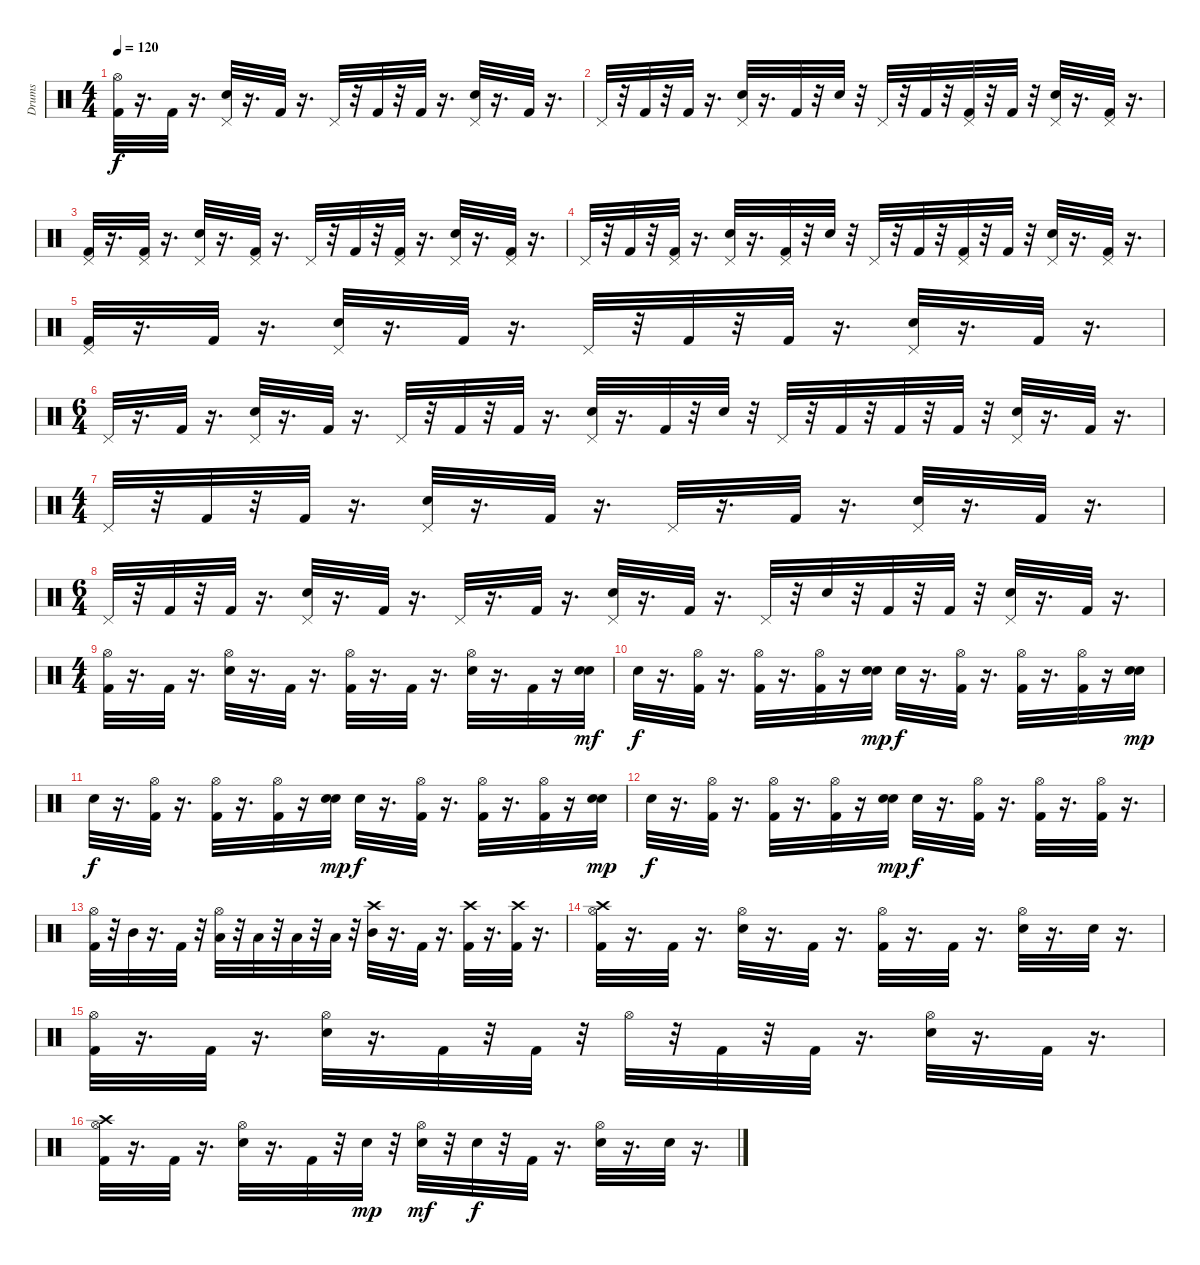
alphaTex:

\track ("Drums" "Drums") {instrument percussion}
\staff {score}
\articulation defaults
\ts (4 4)
\tempo 120
\clef neutral
\ks c
("Hi-Hat (open)" "Kick (hit) 2").32{dy f} r.16{d} "Kick (hit) 2".32 r.16{d} ("Pedal Hi-Hat (hit)" "Snare (hit) 2").32 r.16{d} "Kick (hit) 2".32 r.16{d} "Pedal Hi-Hat (hit)".32 r.32 "Kick (hit) 2".32 r.32 "Kick (hit) 2".32 r.16{d} ("Pedal Hi-Hat (hit)" "Snare (hit) 2").32 r.16{d} "Kick (hit) 2".32 r.16{d} |
"Pedal Hi-Hat (hit)".32 r.32 "Kick (hit) 2".32 r.32 "Kick (hit) 2".32 r.16{d} ("Pedal Hi-Hat (hit)" "Snare (hit) 2").32 r.16{d} "Kick (hit) 2".32 r.32 "Snare (hit) 2".32 r.32 "Pedal Hi-Hat (hit)".32 r.32 "Kick (hit) 2".32 r.32 ("Pedal Hi-Hat (hit)" "Kick (hit) 2").32 r.32 "Kick (hit) 2".32 r.32 ("Pedal Hi-Hat (hit)" "Snare (hit) 2").32 r.16{d} ("Kick (hit) 2" "Pedal Hi-Hat (hit)").32 r.16{d} |
("Pedal Hi-Hat (hit)" "Kick (hit) 2").32 r.16{d} ("Pedal Hi-Hat (hit)" "Kick (hit) 2").32 r.16{d} ("Pedal Hi-Hat (hit)" "Snare (hit) 2").32 r.16{d} ("Pedal Hi-Hat (hit)" "Kick (hit) 2").32 r.16{d} "Pedal Hi-Hat (hit)".32 r.32 "Kick (hit) 2".32 r.32 ("Pedal Hi-Hat (hit)" "Kick (hit) 2").32 r.16{d} ("Pedal Hi-Hat (hit)" "Snare (hit) 2").32 r.16{d} ("Pedal Hi-Hat (hit)" "Kick (hit) 2").32 r.16{d} |
"Pedal Hi-Hat (hit)".32 r.32 "Kick (hit) 2".32 r.32 ("Pedal Hi-Hat (hit)" "Kick (hit) 2").32 r.16{d} ("Pedal Hi-Hat (hit)" "Snare (hit) 2").32 r.16{d} ("Pedal Hi-Hat (hit)" "Kick (hit) 2").32 r.32 "Snare (hit) 2".32 r.32 "Pedal Hi-Hat (hit)".32 r.32 "Kick (hit) 2".32 r.32 ("Pedal Hi-Hat (hit)" "Kick (hit) 2").32 r.32 "Kick (hit) 2".32 r.32 ("Pedal Hi-Hat (hit)" "Snare (hit) 2").32 r.16{d} ("Kick (hit) 2" "Pedal Hi-Hat (hit)").32 r.16{d} |
("Pedal Hi-Hat (hit)" "Kick (hit) 2").32 r.16{d} "Kick (hit) 2".32 r.16{d} ("Pedal Hi-Hat (hit)" "Snare (hit) 2").32 r.16{d} "Kick (hit) 2".32 r.16{d} "Pedal Hi-Hat (hit)".32 r.32 "Kick (hit) 2".32 r.32 "Kick (hit) 2".32 r.16{d} ("Pedal Hi-Hat (hit)" "Snare (hit) 2").32 r.16{d} "Kick (hit) 2".32 r.16{d} |
\ts (6 4)
"Pedal Hi-Hat (hit)".32 r.16{d} "Kick (hit) 2".32 r.16{d} ("Snare (hit) 2" "Pedal Hi-Hat (hit)").32 r.16{d} "Kick (hit) 2".32 r.16{d} "Pedal Hi-Hat (hit)".32 r.32 "Kick (hit) 2".32 r.32 "Kick (hit) 2".32 r.16{d} ("Snare (hit) 2" "Pedal Hi-Hat (hit)").32 r.16{d} "Kick (hit) 2".32 r.32 "Snare (hit) 2".32 r.32 "Pedal Hi-Hat (hit)".32 r.32 "Kick (hit) 2".32 r.32 "Kick (hit) 2".32 r.32 "Kick (hit) 2".32 r.32 ("Pedal Hi-Hat (hit)" "Snare (hit) 2").32 r.16{d} "Kick (hit) 2".32 r.16{d} |
\ts (4 4)
"Pedal Hi-Hat (hit)".32 r.32 "Kick (hit) 2".32 r.32 "Kick (hit) 2".32 r.16{d} ("Pedal Hi-Hat (hit)" "Snare (hit) 2").32 r.16{d} "Kick (hit) 2".32 r.16{d} "Pedal Hi-Hat (hit)".32 r.16{d} "Kick (hit) 2".32 r.16{d} ("Pedal Hi-Hat (hit)" "Snare (hit) 2").32 r.16{d} "Kick (hit) 2".32 r.16{d} |
\ts (6 4)
"Pedal Hi-Hat (hit)".32 r.32 "Kick (hit) 2".32 r.32 "Kick (hit) 2".32 r.16{d} ("Pedal Hi-Hat (hit)" "Snare (hit) 2").32 r.16{d} "Kick (hit) 2".32 r.16{d} "Pedal Hi-Hat (hit)".32 r.16{d} "Kick (hit) 2".32 r.16{d} ("Pedal Hi-Hat (hit)" "Snare (hit) 2").32 r.16{d} "Kick (hit) 2".32 r.16{d} "Pedal Hi-Hat (hit)".32 r.32 "Snare (hit) 2".32 r.32 "Kick (hit) 2".32 r.32 "Kick (hit) 2".32 r.32 ("Pedal Hi-Hat (hit)" "Snare (hit) 2").32 r.16{d} "Kick (hit) 2".32 r.16{d} |
\ts (4 4)
("Hi-Hat (open)" "Kick (hit) 2").32 r.16{d} "Kick (hit) 2".32 r.16{d} ("Hi-Hat (open)" "Snare (hit) 2").32 r.16{d} "Kick (hit) 2".32 r.16{d} ("Hi-Hat (open)" "Kick (hit) 2").32 r.16{d} "Kick (hit) 2".32 r.16{d} ("Hi-Hat (open)" "Snare (hit) 2").32 r.16{d} "Kick (hit) 2".32 r.16 ("Snare (hit) 2" "Snare (hit) 2").32{dy mf} |
"Snare (hit) 2".32{dy f} r.16{d} ("Kick (hit) 2" "Hi-Hat (open)").32 r.16{d} ("Kick (hit) 2" "Hi-Hat (open)").32 r.16{d} ("Kick (hit) 2" "Hi-Hat (open)").32 r.16 ("Snare (hit) 2" "Snare (hit) 2").32{dy mp} "Snare (hit) 2".32{dy f} r.16{d} ("Kick (hit) 2" "Hi-Hat (open)").32 r.16{d} ("Kick (hit) 2" "Hi-Hat (open)").32 r.16{d} ("Kick (hit) 2" "Hi-Hat (open)").32 r.16 ("Snare (hit) 2" "Snare (hit) 2").32{dy mp} |
"Snare (hit) 2".32{dy f} r.16{d} ("Kick (hit) 2" "Hi-Hat (open)").32 r.16{d} ("Kick (hit) 2" "Hi-Hat (open)").32 r.16{d} ("Kick (hit) 2" "Hi-Hat (open)").32 r.16 ("Snare (hit) 2" "Snare (hit) 2").32{dy mp} "Snare (hit) 2".32{dy f} r.16{d} ("Kick (hit) 2" "Hi-Hat (open)").32 r.16{d} ("Kick (hit) 2" "Hi-Hat (open)").32 r.16{d} ("Kick (hit) 2" "Hi-Hat (open)").32 r.16 ("Snare (hit) 2" "Snare (hit) 2").32{dy mp} |
"Snare (hit) 2".32{dy f} r.16{d} ("Kick (hit) 2" "Hi-Hat (open)").32 r.16{d} ("Kick (hit) 2" "Hi-Hat (open)").32 r.16{d} ("Kick (hit) 2" "Hi-Hat (open)").32 r.16 ("Snare (hit) 2" "Snare (hit) 2").32{dy mp} "Snare (hit) 2".32{dy f} r.16{d} ("Kick (hit) 2" "Hi-Hat (open)").32 r.16{d} ("Kick (hit) 2" "Hi-Hat (open)").32 r.16{d} ("Kick (hit) 2" "Hi-Hat (open)").32 r.16{d} |
("Hi-Hat (open)" "Kick (hit) 2").32 r.32 "Mid Tom (hit)".32 r.16{d} "Kick (hit) 2".32 r.32 ("Hi-Hat (open)" "Low Tom (hit)").32 r.32 "Low Tom (hit)".32 r.32 "Low Floor Tom (hit)".32 r.32 "Low Floor Tom (hit)".32 r.32 ("Crash high (hit)" "Mid Tom (hit)").32 r.16{d} "Kick (hit) 2".32 r.16{d} ("Kick (hit) 2" "Crash high (hit)").32 r.16{d} ("Kick (hit) 2" "Crash high (hit)").32 r.16{d} |
("Hi-Hat (open)" "Kick (hit) 2" "Crash high (hit)").32 r.16{d} "Kick (hit) 2".32 r.16{d} ("Hi-Hat (open)" "Snare (hit) 2").32 r.16{d} "Kick (hit) 2".32 r.16{d} ("Hi-Hat (open)" "Kick (hit) 2").32 r.16{d} "Kick (hit) 2".32 r.16{d} ("Hi-Hat (open)" "Snare (hit) 2").32 r.16{d} "Snare (hit) 2".32 r.16{d} |
("Kick (hit) 2" "Hi-Hat (open)").32 r.16{d} "Kick (hit) 2".32 r.16{d} ("Snare (hit) 2" "Hi-Hat (open)").32 r.16{d} "Kick (hit) 2".32 r.32 "Kick (hit) 2".32 r.32 "Hi-Hat (open)".32 r.32 "Kick (hit) 2".32 r.32 "Kick (hit) 2".32 r.16{d} ("Snare (hit) 2" "Hi-Hat (open)").32 r.16{d} "Kick (hit) 2".32 r.16{d} |
("Crash high (hit)" "Kick (hit) 2" "Hi-Hat (open)").32 r.16{d} "Kick (hit) 2".32 r.16{d} ("Snare (hit) 2" "Hi-Hat (open)").32 r.16{d} "Kick (hit) 2".32 r.32 "Snare (hit) 2".32{dy mp} r.32 ("Snare (hit) 2" "Hi-Hat (open)").32{dy mf} r.32 "Snare (hit) 2".32{dy f} r.32 "Kick (hit) 2".32 r.16{d} ("Snare (hit) 2" "Hi-Hat (open)").32 r.16{d} "Snare (hit) 2".32 r.16{d}
